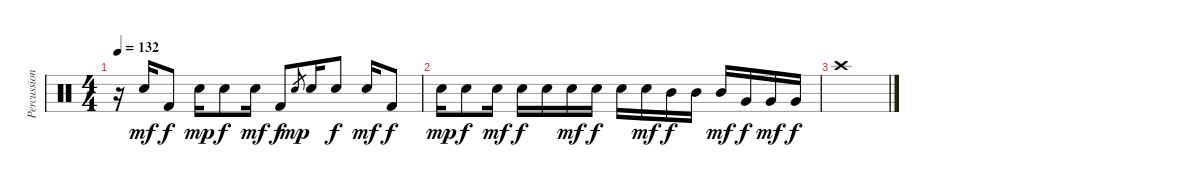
\track ("Percussion" "Percussion") {instrument percussion}
\staff {score}
\articulation defaults
\ts (4 4)
\tempo 132
\clef neutral
\ks c
r.16{dy f} "Electric Snare (hit)".16{dy mf} "Kick (hit) 2".8{dy f} "Snare (hit) 2".16{dy mp} "Electric Snare (hit)".8{dy f} "Electric Snare (hit)".16{dy mf} "Kick (hit) 2".8{dy f} "Snare (hit) 2".8{gr dy mp} "Snare (hit) 2".16 "Electric Snare (hit)".8{dy f} "Electric Snare (hit)".16{dy mf} "Kick (hit) 2".8{dy f} |
"Snare (hit) 2".16{dy mp} "Electric Snare (hit)".8{dy f} "Electric Snare (hit)".16{dy mf} "Electric Snare (hit)".16{dy f} "Electric Snare (hit)".16 "Electric Snare (hit)".16{dy mf} "Snare (hit) 2".16{dy f} "Snare (hit) 2".16 "Snare (hit) 2".16{dy mf} "Mid Tom (hit)".16{dy f} "Mid Tom (hit)".16 "Mid Tom (hit)".16{dy mf} "Very Low Tom (hit)".16{dy f} "Very Low Tom (hit)".16{dy mf} "Very Low Tom (hit)".16{dy f} |
"Crash high (hit)".1
